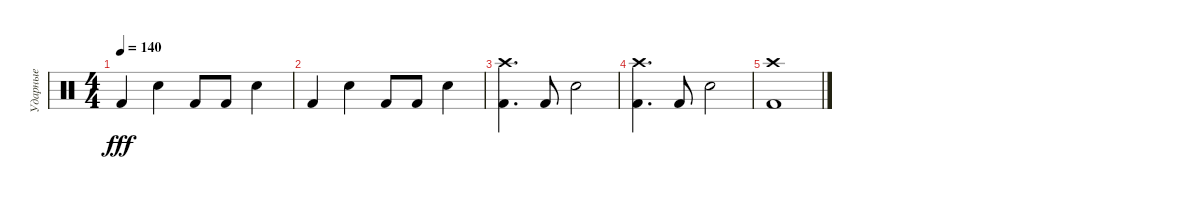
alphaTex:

\track ("Ударные" "Ударные") {instrument percussion}
\staff {score}
\articulation defaults
\ts (4 4)
\tempo 140
\clef neutral
\ks c "Kick (hit) 2".4{dy fff} "Electric Snare (hit)".4 "Kick (hit) 2".8 "Kick (hit) 2".8 "Electric Snare (hit)".4
|
"Kick (hit) 2".4 "Electric Snare (hit)".4 "Kick (hit) 2".8 "Kick (hit) 2".8 "Electric Snare (hit)".4 |
("Kick (hit) 2" "Crash high (hit)").4{d} "Kick (hit) 2".8 "Electric Snare (hit)".2 |
("Kick (hit) 2" "Crash high (hit)").4{d} "Kick (hit) 2".8 "Electric Snare (hit)".2 |
("Kick (hit) 2" "Crash high (hit)").1
